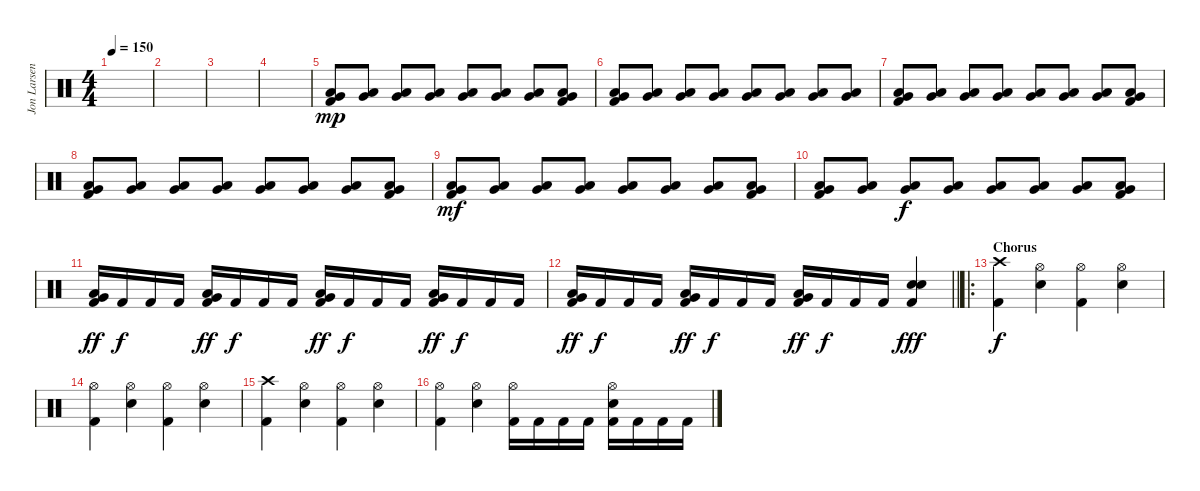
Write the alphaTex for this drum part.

\track ("Jon Larsen" "Jon Larsen") {instrument percussion}
\staff {score}
\articulation defaults
\ts (4 4)
\tempo 150
\clef neutral
\ks c
|
|
|
|
("Low Floor Tom (hit)" "Very Low Tom (hit)" "Kick (hit) 2").8{dy mp} ("Low Floor Tom (hit)" "Very Low Tom (hit)").8 ("Low Floor Tom (hit)" "Very Low Tom (hit)").8 ("Low Floor Tom (hit)" "Very Low Tom (hit)").8 ("Low Floor Tom (hit)" "Very Low Tom (hit)").8 ("Low Floor Tom (hit)" "Very Low Tom (hit)").8 ("Low Floor Tom (hit)" "Very Low Tom (hit)").8 ("Low Floor Tom (hit)" "Very Low Tom (hit)" "Kick (hit) 2").8 |
("Low Floor Tom (hit)" "Very Low Tom (hit)" "Kick (hit) 2").8 ("Low Floor Tom (hit)" "Very Low Tom (hit)").8 ("Low Floor Tom (hit)" "Very Low Tom (hit)").8 ("Low Floor Tom (hit)" "Very Low Tom (hit)").8 ("Low Floor Tom (hit)" "Very Low Tom (hit)").8 ("Low Floor Tom (hit)" "Very Low Tom (hit)").8 ("Low Floor Tom (hit)" "Very Low Tom (hit)").8 ("Low Floor Tom (hit)" "Very Low Tom (hit)").8 |
("Low Floor Tom (hit)" "Very Low Tom (hit)" "Kick (hit) 2").8 ("Low Floor Tom (hit)" "Very Low Tom (hit)").8 ("Low Floor Tom (hit)" "Very Low Tom (hit)").8 ("Low Floor Tom (hit)" "Very Low Tom (hit)").8 ("Low Floor Tom (hit)" "Very Low Tom (hit)").8 ("Low Floor Tom (hit)" "Very Low Tom (hit)").8 ("Low Floor Tom (hit)" "Very Low Tom (hit)").8 ("Low Floor Tom (hit)" "Very Low Tom (hit)" "Kick (hit) 2").8 |
("Low Floor Tom (hit)" "Very Low Tom (hit)" "Kick (hit) 2").8 ("Low Floor Tom (hit)" "Very Low Tom (hit)").8 ("Low Floor Tom (hit)" "Very Low Tom (hit)").8 ("Low Floor Tom (hit)" "Very Low Tom (hit)").8 ("Low Floor Tom (hit)" "Very Low Tom (hit)").8 ("Low Floor Tom (hit)" "Very Low Tom (hit)").8 ("Low Floor Tom (hit)" "Very Low Tom (hit)").8 ("Low Floor Tom (hit)" "Very Low Tom (hit)" "Kick (hit) 2").8 |
("Low Floor Tom (hit)" "Very Low Tom (hit)" "Kick (hit) 2").8{dy mf} ("Low Floor Tom (hit)" "Very Low Tom (hit)").8 ("Low Floor Tom (hit)" "Very Low Tom (hit)").8 ("Low Floor Tom (hit)" "Very Low Tom (hit)").8 ("Low Floor Tom (hit)" "Very Low Tom (hit)").8 ("Low Floor Tom (hit)" "Very Low Tom (hit)").8 ("Low Floor Tom (hit)" "Very Low Tom (hit)").8 ("Low Floor Tom (hit)" "Very Low Tom (hit)" "Kick (hit) 2").8 |
("Low Floor Tom (hit)" "Very Low Tom (hit)" "Kick (hit) 2").8 ("Low Floor Tom (hit)" "Very Low Tom (hit)").8 ("Low Floor Tom (hit)" "Very Low Tom (hit)").8{dy f} ("Low Floor Tom (hit)" "Very Low Tom (hit)").8 ("Low Floor Tom (hit)" "Very Low Tom (hit)").8 ("Low Floor Tom (hit)" "Very Low Tom (hit)").8 ("Low Floor Tom (hit)" "Very Low Tom (hit)").8 ("Low Floor Tom (hit)" "Very Low Tom (hit)" "Kick (hit) 2").8 |
("Very Low Tom (hit)" "Low Floor Tom (hit)" "Kick (hit) 2").16{dy ff} "Kick (hit) 2".16{dy f} "Kick (hit) 2".16 "Kick (hit) 2".16 ("Very Low Tom (hit)" "Low Floor Tom (hit)" "Kick (hit) 2").16{dy ff} "Kick (hit) 2".16{dy f} "Kick (hit) 2".16 "Kick (hit) 2".16 ("Very Low Tom (hit)" "Low Floor Tom (hit)" "Kick (hit) 2").16{dy ff} "Kick (hit) 2".16{dy f} "Kick (hit) 2".16 "Kick (hit) 2".16 ("Very Low Tom (hit)" "Low Floor Tom (hit)" "Kick (hit) 2").16{dy ff} "Kick (hit) 2".16{dy f} "Kick (hit) 2".16 "Kick (hit) 2".16 |
\barLineRight lightlight
("Very Low Tom (hit)" "Low Floor Tom (hit)" "Kick (hit) 2").16{dy ff} "Kick (hit) 2".16{dy f} "Kick (hit) 2".16 "Kick (hit) 2".16 ("Very Low Tom (hit)" "Low Floor Tom (hit)" "Kick (hit) 2").16{dy ff} "Kick (hit) 2".16{dy f} "Kick (hit) 2".16 "Kick (hit) 2".16 ("Very Low Tom (hit)" "Low Floor Tom (hit)" "Kick (hit) 2").16{dy ff} "Kick (hit) 2".16{dy f} "Kick (hit) 2".16 "Kick (hit) 2".16 ("Electric Snare (hit)" "Electric Snare (hit)" "Kick (hit) 2").4{dy fff} |
\ro
\section ("" "Chorus")
("Crash high (hit)" "Kick (hit) 2").4{dy f} ("Hi-Hat (open)" "Electric Snare (hit)").4 ("Hi-Hat (open)" "Kick (hit) 2").4 ("Hi-Hat (open)" "Electric Snare (hit)").4 |
("Hi-Hat (open)" "Kick (hit) 2").4 ("Hi-Hat (open)" "Electric Snare (hit)").4 ("Hi-Hat (open)" "Kick (hit) 2").4 ("Hi-Hat (open)" "Electric Snare (hit)").4 |
("Crash high (hit)" "Kick (hit) 2").4 ("Hi-Hat (open)" "Electric Snare (hit)").4 ("Hi-Hat (open)" "Kick (hit) 2").4 ("Hi-Hat (open)" "Electric Snare (hit)").4 |
("Hi-Hat (open)" "Kick (hit) 2").4 ("Hi-Hat (open)" "Electric Snare (hit)").4 ("Hi-Hat (open)" "Kick (hit) 2").16 "Kick (hit) 2".16 "Kick (hit) 2".16 "Kick (hit) 2".16 ("Hi-Hat (open)" "Electric Snare (hit)" "Kick (hit) 2").16 "Kick (hit) 2".16 "Kick (hit) 2".16 "Kick (hit) 2".16
